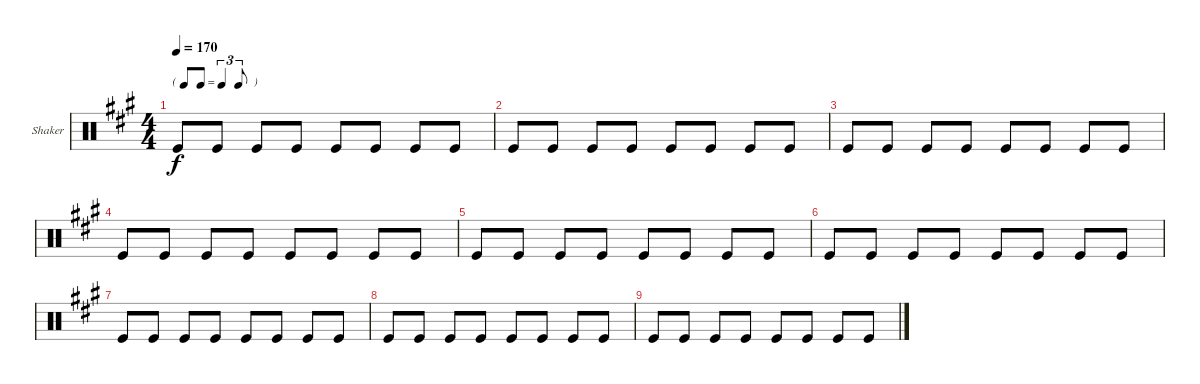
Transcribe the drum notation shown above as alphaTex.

\bracketExtendMode groupsimilarinstruments
\firstSystemTrackNameOrientation horizontal
\otherSystemsTrackNameOrientation horizontal
\track ("Shaker" "Shaker") {instrument percussion}
\staff {score}
\articulation defaults
\ts (4 4)
\tf triplet8th
\tempo 170
\clef neutral
\scale
0.333333
\ks a "Kick (hit)".8{dy f} "Kick (hit)".8 "Kick (hit)".8 "Kick (hit)".8 "Kick (hit)".8 "Kick (hit)".8 "Kick (hit)".8 "Kick (hit)".8
|
\scale
0.333333 "Kick (hit)".8 "Kick (hit)".8 "Kick (hit)".8 "Kick (hit)".8 "Kick (hit)".8 "Kick (hit)".8 "Kick (hit)".8 "Kick (hit)".8 |
\scale
0.333333 "Kick (hit)".8 "Kick (hit)".8 "Kick (hit)".8 "Kick (hit)".8 "Kick (hit)".8 "Kick (hit)".8 "Kick (hit)".8 "Kick (hit)".8 |
\scale
0.333333 "Kick (hit)".8 "Kick (hit)".8 "Kick (hit)".8 "Kick (hit)".8 "Kick (hit)".8 "Kick (hit)".8 "Kick (hit)".8 "Kick (hit)".8 |
\scale
0.333333 "Kick (hit)".8 "Kick (hit)".8 "Kick (hit)".8 "Kick (hit)".8 "Kick (hit)".8 "Kick (hit)".8 "Kick (hit)".8 "Kick (hit)".8 |
\scale
0.333333 "Kick (hit)".8 "Kick (hit)".8 "Kick (hit)".8 "Kick (hit)".8 "Kick (hit)".8 "Kick (hit)".8 "Kick (hit)".8 "Kick (hit)".8 |
\scale
0.333333 "Kick (hit)".8 "Kick (hit)".8 "Kick (hit)".8 "Kick (hit)".8 "Kick (hit)".8 "Kick (hit)".8 "Kick (hit)".8 "Kick (hit)".8 |
"Kick (hit)".8 "Kick (hit)".8 "Kick (hit)".8 "Kick (hit)".8 "Kick (hit)".8 "Kick (hit)".8 "Kick (hit)".8 "Kick (hit)".8 |
"Kick (hit)".8 "Kick (hit)".8 "Kick (hit)".8 "Kick (hit)".8 "Kick (hit)".8 "Kick (hit)".8 "Kick (hit)".8 "Kick (hit)".8
